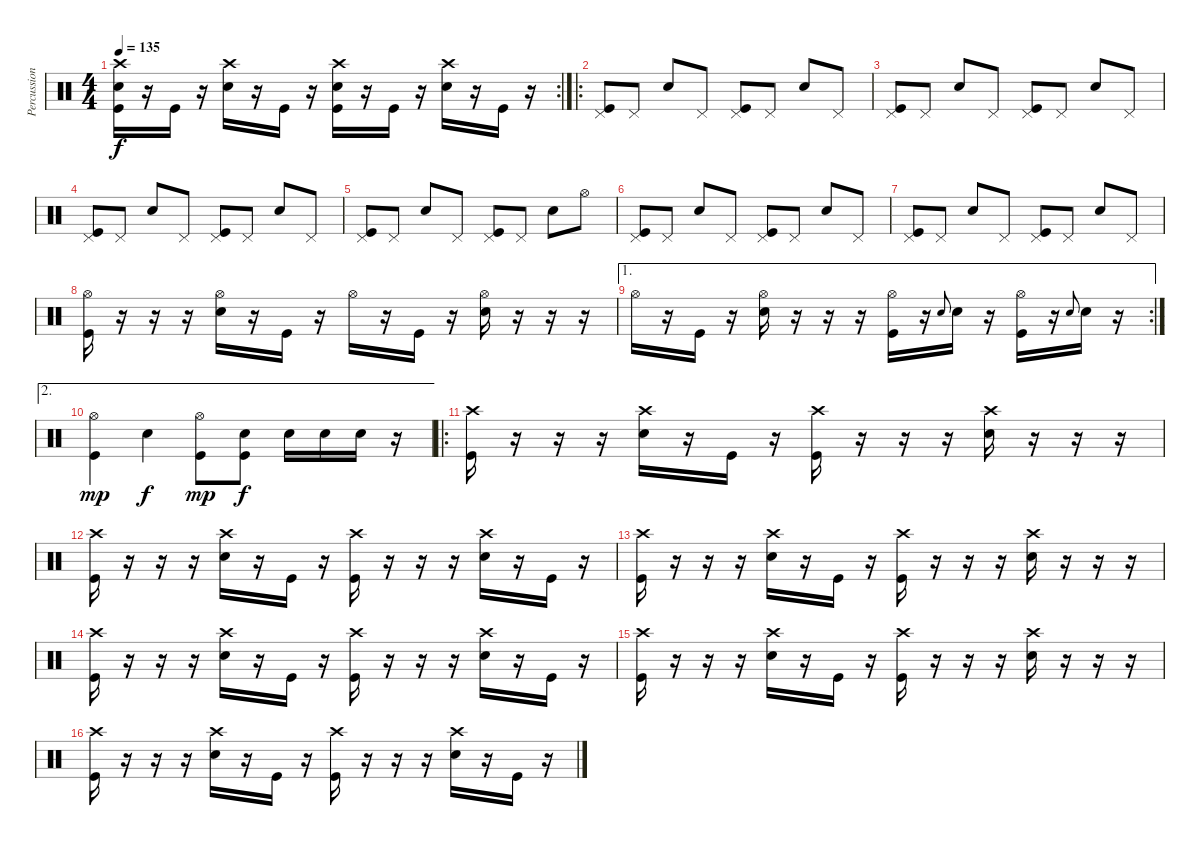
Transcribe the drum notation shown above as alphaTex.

\track ("Percussion" "Percussion") {instrument percussion}
\staff {score}
\articulation defaults
\rc 2
\ts (4 4)
\tempo 135
\clef neutral
\ks c
("Crash high (hit)" "Snare (hit) 2" "Kick (hit)").16{dy f} r.16 "Kick (hit)".16 r.16 ("Crash high (hit)" "Snare (hit) 2").16 r.16 "Kick (hit)".16 r.16 ("Crash high (hit)" "Snare (hit) 2" "Kick (hit)").16 r.16 "Kick (hit)".16 r.16 ("Crash high (hit)" "Snare (hit) 2").16 r.16 "Kick (hit)".16 r.16 |
\ro
("Pedal Hi-Hat (hit)" "Kick (hit)").8 "Pedal Hi-Hat (hit)".8 "Snare (hit) 2".8 "Pedal Hi-Hat (hit)".8 ("Pedal Hi-Hat (hit)" "Kick (hit)").8 "Pedal Hi-Hat (hit)".8 "Snare (hit) 2".8 "Pedal Hi-Hat (hit)".8 |
("Pedal Hi-Hat (hit)" "Kick (hit)").8 "Pedal Hi-Hat (hit)".8 "Snare (hit) 2".8 "Pedal Hi-Hat (hit)".8 ("Pedal Hi-Hat (hit)" "Kick (hit)").8 "Pedal Hi-Hat (hit)".8 "Snare (hit) 2".8 "Pedal Hi-Hat (hit)".8 |
("Pedal Hi-Hat (hit)" "Kick (hit)").8 "Pedal Hi-Hat (hit)".8 "Snare (hit) 2".8 "Pedal Hi-Hat (hit)".8 ("Pedal Hi-Hat (hit)" "Kick (hit)").8 "Pedal Hi-Hat (hit)".8 "Snare (hit) 2".8 "Pedal Hi-Hat (hit)".8 |
("Pedal Hi-Hat (hit)" "Kick (hit)").8 "Pedal Hi-Hat (hit)".8 "Snare (hit) 2".8 "Pedal Hi-Hat (hit)".8 ("Pedal Hi-Hat (hit)" "Kick (hit)").8 "Pedal Hi-Hat (hit)".8 "Snare (hit) 2".8 "Hi-Hat (open)".8 |
("Pedal Hi-Hat (hit)" "Kick (hit)").8 "Pedal Hi-Hat (hit)".8 "Snare (hit) 2".8 "Pedal Hi-Hat (hit)".8 ("Pedal Hi-Hat (hit)" "Kick (hit)").8 "Pedal Hi-Hat (hit)".8 "Snare (hit) 2".8 "Pedal Hi-Hat (hit)".8 |
("Pedal Hi-Hat (hit)" "Kick (hit)").8 "Pedal Hi-Hat (hit)".8 "Snare (hit) 2".8 "Pedal Hi-Hat (hit)".8 ("Pedal Hi-Hat (hit)" "Kick (hit)").8 "Pedal Hi-Hat (hit)".8 "Snare (hit) 2".8 "Pedal Hi-Hat (hit)".8 |
("Hi-Hat (open)" "Kick (hit)").16 r.16 r.16 r.16 ("Hi-Hat (open)" "Snare (hit) 2").16 r.16 "Kick (hit)".16 r.16 "Hi-Hat (open)".16 r.16 "Kick (hit)".16 r.16 ("Hi-Hat (open)" "Snare (hit) 2").16 r.16 r.16 r.16 |
\ae 1
\rc 2 "Hi-Hat (open)".16
r.16 "Kick (hit)".16 r.16 ("Hi-Hat (open)" "Snare (hit) 2").16 r.16 r.16 r.16 ("Hi-Hat (open)" "Kick (hit)").16 r.16 "Snare (hit) 2".8{gr onbeat} "Snare (hit) 2".16 r.16 ("Hi-Hat (open)" "Kick (hit)").16 r.16 "Snare (hit) 2".8{gr onbeat} "Snare (hit) 2".16 r.16 |
\ae 2
("Hi-Hat (open)" "Kick (hit)").4{dy mp} "Snare (hit) 2".4{dy f} ("Hi-Hat (open)" "Kick (hit)").8{dy mp} ("Snare (hit) 2" "Kick (hit)").8{dy f} "Snare (hit) 2".16 "Snare (hit) 2".16 "Snare (hit) 2".16 r.16 |
\ro
("Crash high (hit)" "Kick (hit)").16 r.16 r.16 r.16 ("Crash high (hit)" "Snare (hit) 2").16 r.16 "Kick (hit)".16 r.16 ("Crash high (hit)" "Kick (hit)").16 r.16 r.16 r.16 ("Crash high (hit)" "Snare (hit) 2").16 r.16 r.16 r.16 |
("Crash high (hit)" "Kick (hit)").16 r.16 r.16 r.16 ("Crash high (hit)" "Snare (hit) 2").16 r.16 "Kick (hit)".16 r.16 ("Crash high (hit)" "Kick (hit)").16 r.16 r.16 r.16 ("Crash high (hit)" "Snare (hit) 2").16 r.16 "Kick (hit)".16 r.16 |
("Crash high (hit)" "Kick (hit)").16 r.16 r.16 r.16 ("Crash high (hit)" "Snare (hit) 2").16 r.16 "Kick (hit)".16 r.16 ("Crash high (hit)" "Kick (hit)").16 r.16 r.16 r.16 ("Crash high (hit)" "Snare (hit) 2").16 r.16 r.16 r.16 |
("Crash high (hit)" "Kick (hit)").16 r.16 r.16 r.16 ("Crash high (hit)" "Snare (hit) 2").16 r.16 "Kick (hit)".16 r.16 ("Crash high (hit)" "Kick (hit)").16 r.16 r.16 r.16 ("Crash high (hit)" "Snare (hit) 2").16 r.16 "Kick (hit)".16 r.16 |
("Crash high (hit)" "Kick (hit)").16 r.16 r.16 r.16 ("Crash high (hit)" "Snare (hit) 2").16 r.16 "Kick (hit)".16 r.16 ("Crash high (hit)" "Kick (hit)").16 r.16 r.16 r.16 ("Crash high (hit)" "Snare (hit) 2").16 r.16 r.16 r.16 |
("Crash high (hit)" "Kick (hit)").16 r.16 r.16 r.16 ("Crash high (hit)" "Snare (hit) 2").16 r.16 "Kick (hit)".16 r.16 ("Crash high (hit)" "Kick (hit)").16 r.16 r.16 r.16 ("Crash high (hit)" "Snare (hit) 2").16 r.16 "Kick (hit)".16 r.16
